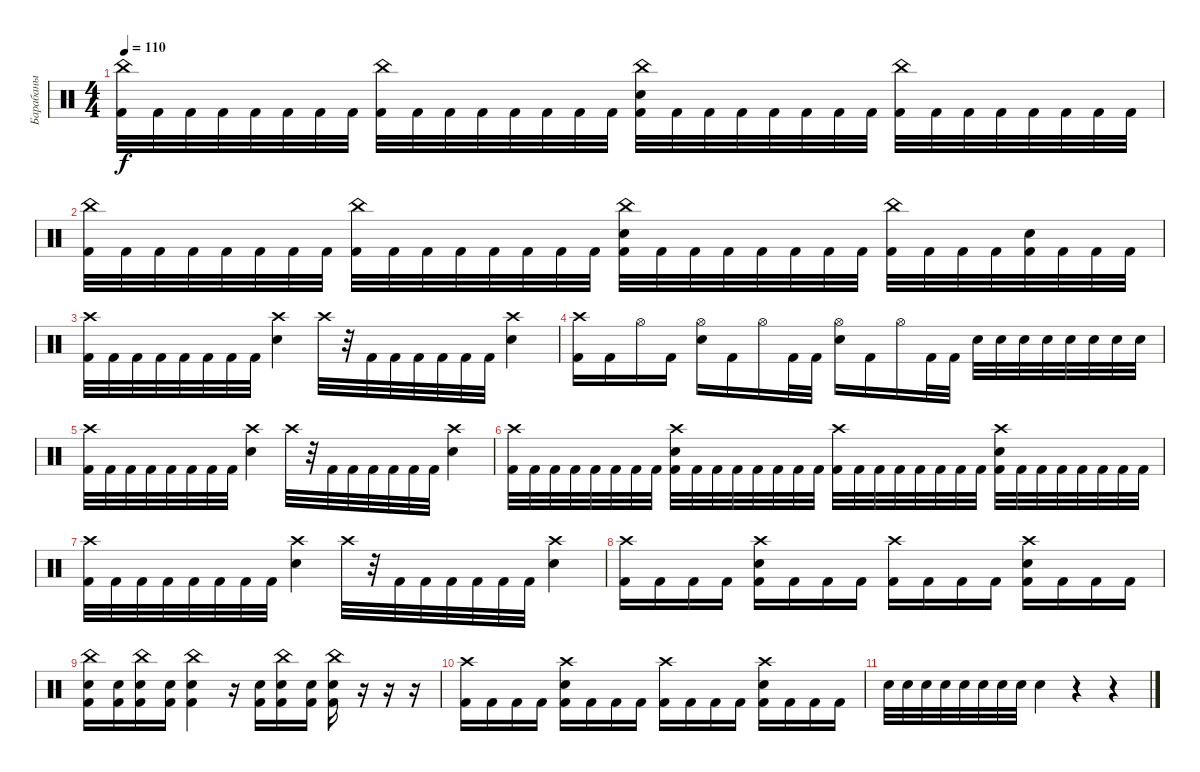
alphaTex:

\track ("Барабаны" "Барабаны") {instrument percussion}
\staff {score}
\articulation defaults
\ts (4 4)
\tempo 110
\clef neutral
\ks c
("China (hit)" "Kick (hit) 2").32{dy f} "Kick (hit) 2".32 "Kick (hit) 2".32 "Kick (hit) 2".32 "Kick (hit) 2".32 "Kick (hit) 2".32 "Kick (hit) 2".32 "Kick (hit) 2".32 ("China (hit)" "Kick (hit) 2").32 "Kick (hit) 2".32 "Kick (hit) 2".32 "Kick (hit) 2".32 "Kick (hit) 2".32 "Kick (hit) 2".32 "Kick (hit) 2".32 "Kick (hit) 2".32 ("China (hit)" "Electric Snare (hit)" "Kick (hit) 2").32 "Kick (hit) 2".32 "Kick (hit) 2".32 "Kick (hit) 2".32 "Kick (hit) 2".32 "Kick (hit) 2".32 "Kick (hit) 2".32 "Kick (hit) 2".32 ("China (hit)" "Kick (hit) 2").32 "Kick (hit) 2".32 "Kick (hit) 2".32 "Kick (hit) 2".32 "Kick (hit) 2".32 "Kick (hit) 2".32 "Kick (hit) 2".32 "Kick (hit) 2".32 |
("China (hit)" "Kick (hit) 2").32 "Kick (hit) 2".32 "Kick (hit) 2".32 "Kick (hit) 2".32 "Kick (hit) 2".32 "Kick (hit) 2".32 "Kick (hit) 2".32 "Kick (hit) 2".32 ("China (hit)" "Kick (hit) 2").32 "Kick (hit) 2".32 "Kick (hit) 2".32 "Kick (hit) 2".32 "Kick (hit) 2".32 "Kick (hit) 2".32 "Kick (hit) 2".32 "Kick (hit) 2".32 ("China (hit)" "Electric Snare (hit)" "Kick (hit) 2").32 "Kick (hit) 2".32 "Kick (hit) 2".32 "Kick (hit) 2".32 "Kick (hit) 2".32 "Kick (hit) 2".32 "Kick (hit) 2".32 "Kick (hit) 2".32 ("China (hit)" "Kick (hit) 2").32 "Kick (hit) 2".32 "Kick (hit) 2".32 "Kick (hit) 2".32 ("Electric Snare (hit)" "Kick (hit) 2").32 "Kick (hit) 2".32 "Kick (hit) 2".32 "Kick (hit) 2".32 |
("Crash high (hit)" "Kick (hit) 2").32 "Kick (hit) 2".32 "Kick (hit) 2".32 "Kick (hit) 2".32 "Kick (hit) 2".32 "Kick (hit) 2".32 "Kick (hit) 2".32 "Kick (hit) 2".32 ("Crash high (hit)" "Electric Snare (hit)").4 "Crash high (hit)".32 r.32 "Kick (hit) 2".32 "Kick (hit) 2".32 "Kick (hit) 2".32 "Kick (hit) 2".32 "Kick (hit) 2".32 "Kick (hit) 2".32 ("Crash high (hit)" "Electric Snare (hit)").4 |
("Crash high (hit)" "Kick (hit) 2").16 "Kick (hit) 2".16 "Hi-Hat (open)".16 "Kick (hit) 2".16 ("Hi-Hat (open)" "Electric Snare (hit)").16 "Kick (hit) 2".16 "Hi-Hat (open)".16 "Kick (hit) 2".32 "Kick (hit) 2".32 ("Hi-Hat (open)" "Electric Snare (hit)").16 "Kick (hit) 2".16 "Hi-Hat (open)".16 "Kick (hit) 2".32 "Kick (hit) 2".32 "Electric Snare (hit)".32 "Electric Snare (hit)".32 "Electric Snare (hit)".32 "Electric Snare (hit)".32 "Electric Snare (hit)".32 "Electric Snare (hit)".32 "Electric Snare (hit)".32 "Electric Snare (hit)".32 |
("Crash high (hit)" "Kick (hit) 2").32 "Kick (hit) 2".32 "Kick (hit) 2".32 "Kick (hit) 2".32 "Kick (hit) 2".32 "Kick (hit) 2".32 "Kick (hit) 2".32 "Kick (hit) 2".32 ("Crash high (hit)" "Electric Snare (hit)").4 "Crash high (hit)".32 r.32 "Kick (hit) 2".32 "Kick (hit) 2".32 "Kick (hit) 2".32 "Kick (hit) 2".32 "Kick (hit) 2".32 "Kick (hit) 2".32 ("Crash high (hit)" "Electric Snare (hit)").4 |
("Crash high (hit)" "Kick (hit) 2").32 "Kick (hit) 2".32 "Kick (hit) 2".32 "Kick (hit) 2".32 "Kick (hit) 2".32 "Kick (hit) 2".32 "Kick (hit) 2".32 "Kick (hit) 2".32 ("Crash high (hit)" "Electric Snare (hit)" "Kick (hit) 2").32 "Kick (hit) 2".32 "Kick (hit) 2".32 "Kick (hit) 2".32 "Kick (hit) 2".32 "Kick (hit) 2".32 "Kick (hit) 2".32 "Kick (hit) 2".32 ("Crash high (hit)" "Kick (hit) 2").32 "Kick (hit) 2".32 "Kick (hit) 2".32 "Kick (hit) 2".32 "Kick (hit) 2".32 "Kick (hit) 2".32 "Kick (hit) 2".32 "Kick (hit) 2".32 ("Crash high (hit)" "Electric Snare (hit)" "Kick (hit) 2").32 "Kick (hit) 2".32 "Kick (hit) 2".32 "Kick (hit) 2".32 "Kick (hit) 2".32 "Kick (hit) 2".32 "Kick (hit) 2".32 "Kick (hit) 2".32 |
("Crash high (hit)" "Kick (hit) 2").32 "Kick (hit) 2".32 "Kick (hit) 2".32 "Kick (hit) 2".32 "Kick (hit) 2".32 "Kick (hit) 2".32 "Kick (hit) 2".32 "Kick (hit) 2".32 ("Crash high (hit)" "Electric Snare (hit)").4 "Crash high (hit)".32 r.32 "Kick (hit) 2".32 "Kick (hit) 2".32 "Kick (hit) 2".32 "Kick (hit) 2".32 "Kick (hit) 2".32 "Kick (hit) 2".32 ("Crash high (hit)" "Electric Snare (hit)").4 |
("Crash high (hit)" "Kick (hit) 2").16 "Kick (hit) 2".16 "Kick (hit) 2".16 "Kick (hit) 2".16 ("Crash high (hit)" "Electric Snare (hit)" "Kick (hit) 2").16 "Kick (hit) 2".16 "Kick (hit) 2".16 "Kick (hit) 2".16 ("Crash high (hit)" "Kick (hit) 2").16 "Kick (hit) 2".16 "Kick (hit) 2".16 "Kick (hit) 2".16 ("Crash high (hit)" "Electric Snare (hit)" "Kick (hit) 2").16 "Kick (hit) 2".16 "Kick (hit) 2".16 "Kick (hit) 2".16 |
("China (hit)" "Electric Snare (hit)" "Kick (hit) 2").16 ("Electric Snare (hit)" "Kick (hit) 2").16 ("China (hit)" "Electric Snare (hit)" "Kick (hit) 2").16 ("Electric Snare (hit)" "Kick (hit) 2").16 ("China (hit)" "Electric Snare (hit)" "Kick (hit) 2").4 r.16 ("Electric Snare (hit)" "Kick (hit) 2").16 ("China (hit)" "Electric Snare (hit)" "Kick (hit) 2").16 ("Electric Snare (hit)" "Kick (hit) 2").16 ("China (hit)" "Electric Snare (hit)" "Kick (hit) 2").16 r.16 r.16 r.16 |
("Crash high (hit)" "Kick (hit) 2").16 "Kick (hit) 2".16 "Kick (hit) 2".16 "Kick (hit) 2".16 ("Crash high (hit)" "Electric Snare (hit)" "Kick (hit) 2").16 "Kick (hit) 2".16 "Kick (hit) 2".16 "Kick (hit) 2".16 ("Crash high (hit)" "Kick (hit) 2").16 "Kick (hit) 2".16 "Kick (hit) 2".16 "Kick (hit) 2".16 ("Crash high (hit)" "Electric Snare (hit)" "Kick (hit) 2").16 "Kick (hit) 2".16 "Kick (hit) 2".16 "Kick (hit) 2".16 |
"Electric Snare (hit)".32 "Electric Snare (hit)".32 "Electric Snare (hit)".32 "Electric Snare (hit)".32 "Electric Snare (hit)".32 "Electric Snare (hit)".32 "Electric Snare (hit)".32 "Electric Snare (hit)".32 "Electric Snare (hit)".4 r.4 r.4
